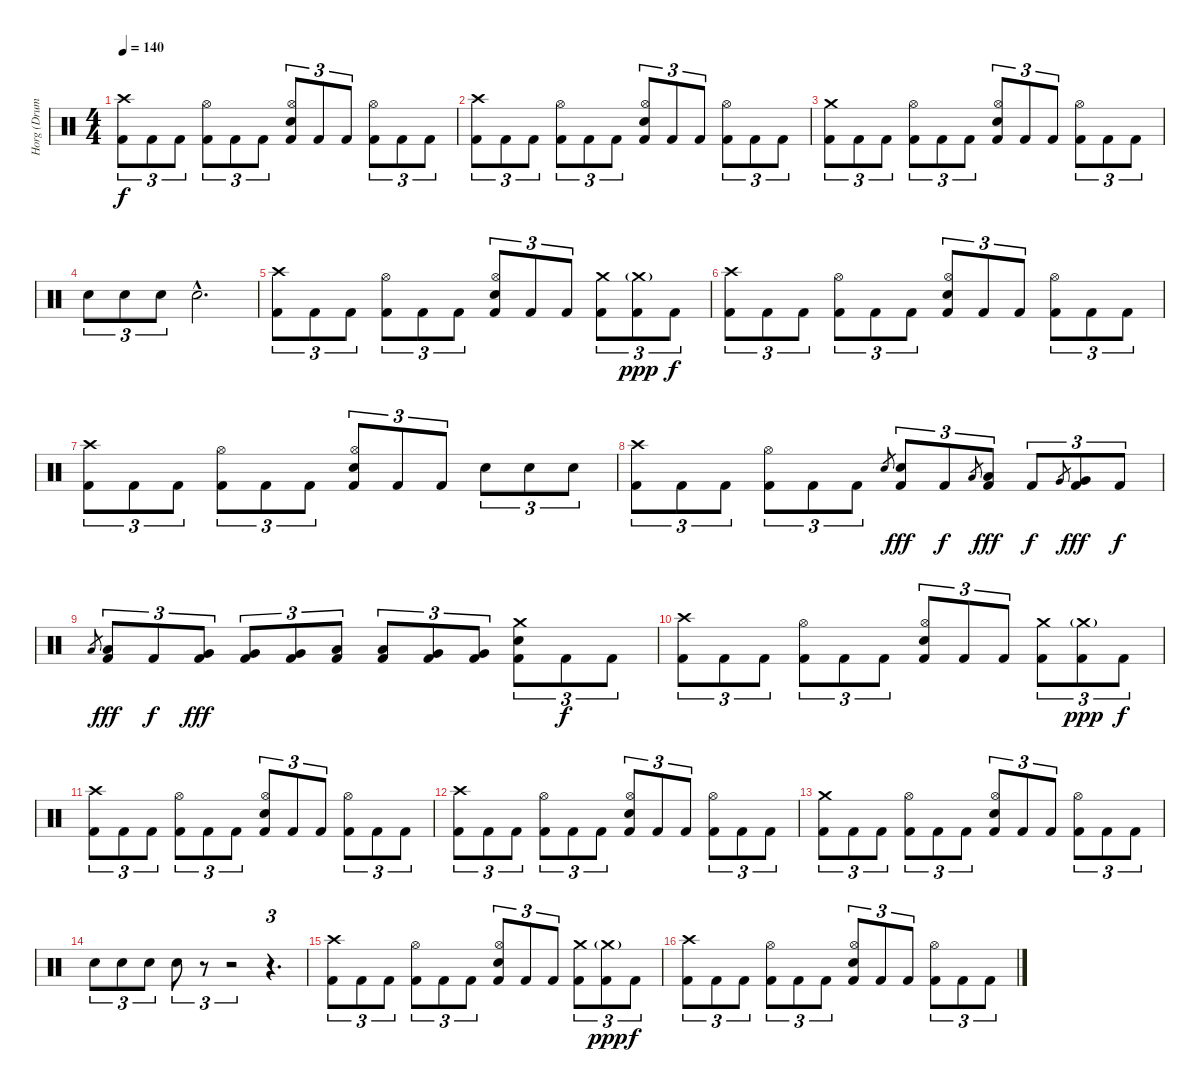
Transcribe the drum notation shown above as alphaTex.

\track ("Horg (Drums)" "Horg (Drum") {instrument percussion}
\staff {score}
\articulation defaults
\ts (4 4)
\tempo 140
\clef neutral
\ks c
("Crash high (hit)" "Kick (hit) 2").8{tu (3 2) dy f} "Kick (hit) 2".8{tu (3 2)} "Kick (hit) 2".8{tu (3 2)} ("Hi-Hat (open)" "Kick (hit) 2").8{tu (3 2)} "Kick (hit) 2".8{tu (3 2)} "Kick (hit) 2".8{tu (3 2)} ("Hi-Hat (open)" "Electric Snare (hit)" "Kick (hit) 2").8{tu (3 2)} "Kick (hit) 2".8{tu (3 2)} "Kick (hit) 2".8{tu (3 2)} ("Hi-Hat (open)" "Kick (hit) 2").8{tu (3 2)} "Kick (hit) 2".8{tu (3 2)} "Kick (hit) 2".8{tu (3 2)} |
("Crash high (hit)" "Kick (hit) 2").8{tu (3 2)} "Kick (hit) 2".8{tu (3 2)} "Kick (hit) 2".8{tu (3 2)} ("Hi-Hat (open)" "Kick (hit) 2").8{tu (3 2)} "Kick (hit) 2".8{tu (3 2)} "Kick (hit) 2".8{tu (3 2)} ("Hi-Hat (open)" "Electric Snare (hit)" "Kick (hit) 2").8{tu (3 2)} "Kick (hit) 2".8{tu (3 2)} "Kick (hit) 2".8{tu (3 2)} ("Hi-Hat (open)" "Kick (hit) 2").8{tu (3 2)} "Kick (hit) 2".8{tu (3 2)} "Kick (hit) 2".8{tu (3 2)} |
("Crash medium (hit)" "Kick (hit) 2").8{tu (3 2)} "Kick (hit) 2".8{tu (3 2)} "Kick (hit) 2".8{tu (3 2)} ("Hi-Hat (open)" "Kick (hit) 2").8{tu (3 2)} "Kick (hit) 2".8{tu (3 2)} "Kick (hit) 2".8{tu (3 2)} ("Hi-Hat (open)" "Electric Snare (hit)" "Kick (hit) 2").8{tu (3 2)} "Kick (hit) 2".8{tu (3 2)} "Kick (hit) 2".8{tu (3 2)} ("Hi-Hat (open)" "Kick (hit) 2").8{tu (3 2)} "Kick (hit) 2".8{tu (3 2)} "Kick (hit) 2".8{tu (3 2)} |
"Electric Snare (hit)".8{tu (3 2)} "Electric Snare (hit)".8{tu (3 2)} "Electric Snare (hit)".8{tu (3 2)} "Electric Snare (hit)"{hac}.2{d} |
("Crash high (hit)" "Kick (hit) 2").8{tu (3 2)} "Kick (hit) 2".8{tu (3 2)} "Kick (hit) 2".8{tu (3 2)} ("Hi-Hat (open)" "Kick (hit) 2").8{tu (3 2)} "Kick (hit) 2".8{tu (3 2)} "Kick (hit) 2".8{tu (3 2)} ("Hi-Hat (open)" "Electric Snare (hit)" "Kick (hit) 2").8{tu (3 2)} "Kick (hit) 2".8{tu (3 2)} "Kick (hit) 2".8{tu (3 2)} ("Crash medium (hit)" "Kick (hit) 2").8{tu (3 2)} ("Crash medium (hit)"{g} "Kick (hit) 2").8{tu (3 2) dy ppp} "Kick (hit) 2".8{tu (3 2) dy f} |
("Crash high (hit)" "Kick (hit) 2").8{tu (3 2)} "Kick (hit) 2".8{tu (3 2)} "Kick (hit) 2".8{tu (3 2)} ("Hi-Hat (open)" "Kick (hit) 2").8{tu (3 2)} "Kick (hit) 2".8{tu (3 2)} "Kick (hit) 2".8{tu (3 2)} ("Hi-Hat (open)" "Electric Snare (hit)" "Kick (hit) 2").8{tu (3 2)} "Kick (hit) 2".8{tu (3 2)} "Kick (hit) 2".8{tu (3 2)} ("Hi-Hat (open)" "Kick (hit) 2").8{tu (3 2)} "Kick (hit) 2".8{tu (3 2)} "Kick (hit) 2".8{tu (3 2)} |
("Crash high (hit)" "Kick (hit) 2").8{tu (3 2)} "Kick (hit) 2".8{tu (3 2)} "Kick (hit) 2".8{tu (3 2)} ("Hi-Hat (open)" "Kick (hit) 2").8{tu (3 2)} "Kick (hit) 2".8{tu (3 2)} "Kick (hit) 2".8{tu (3 2)} ("Hi-Hat (open)" "Electric Snare (hit)" "Kick (hit) 2").8{tu (3 2)} "Kick (hit) 2".8{tu (3 2)} "Kick (hit) 2".8{tu (3 2)} "Electric Snare (hit)".8{tu (3 2)} "Electric Snare (hit)".8{tu (3 2)} "Electric Snare (hit)".8{tu (3 2)} |
("Crash high (hit)" "Kick (hit) 2").8{tu (3 2)} "Kick (hit) 2".8{tu (3 2)} "Kick (hit) 2".8{tu (3 2)} ("Hi-Hat (open)" "Kick (hit) 2").8{tu (3 2)} "Kick (hit) 2".8{tu (3 2)} "Kick (hit) 2".8{tu (3 2)} "Electric Snare (hit)".8{gr} ("Electric Snare (hit)" "Kick (hit) 2").8{tu (3 2) dy fff} "Kick (hit) 2".8{tu (3 2) dy f} "Low Tom (hit)".8{gr} ("Low Tom (hit)" "Kick (hit) 2").8{tu (3 2) dy fff} "Kick (hit) 2".8{tu (3 2) dy f} "Very Low Tom (hit)".8{gr} ("Very Low Tom (hit)" "Kick (hit) 2").8{tu (3 2) dy fff} "Kick (hit) 2".8{tu (3 2) dy f} |
"Low Floor Tom (hit)".8{gr} ("Low Floor Tom (hit)" "Kick (hit) 2").8{tu (3 2) dy fff} "Kick (hit) 2".8{tu (3 2) dy f} ("Very Low Tom (hit)" "Kick (hit) 2").8{tu (3 2) dy fff} ("Very Low Tom (hit)" "Kick (hit) 2").8{tu (3 2)} ("Very Low Tom (hit)" "Kick (hit) 2").8{tu (3 2)} ("Low Floor Tom (hit)" "Kick (hit) 2").8{tu (3 2)} ("Low Floor Tom (hit)" "Kick (hit) 2").8{tu (3 2)} ("Very Low Tom (hit)" "Kick (hit) 2").8{tu (3 2)} ("Very Low Tom (hit)" "Kick (hit) 2").8{tu (3 2)} ("Crash medium (hit)" "Electric Snare (hit)" "Kick (hit) 2").8{tu (3 2)} "Kick (hit) 2".8{tu (3 2) dy f} "Kick (hit) 2".8{tu (3 2)} |
("Crash high (hit)" "Kick (hit) 2").8{tu (3 2)} "Kick (hit) 2".8{tu (3 2)} "Kick (hit) 2".8{tu (3 2)} ("Hi-Hat (open)" "Kick (hit) 2").8{tu (3 2)} "Kick (hit) 2".8{tu (3 2)} "Kick (hit) 2".8{tu (3 2)} ("Hi-Hat (open)" "Electric Snare (hit)" "Kick (hit) 2").8{tu (3 2)} "Kick (hit) 2".8{tu (3 2)} "Kick (hit) 2".8{tu (3 2)} ("Crash medium (hit)" "Kick (hit) 2").8{tu (3 2)} ("Crash medium (hit)"{g} "Kick (hit) 2").8{tu (3 2) dy ppp} "Kick (hit) 2".8{tu (3 2) dy f} |
("Crash high (hit)" "Kick (hit) 2").8{tu (3 2)} "Kick (hit) 2".8{tu (3 2)} "Kick (hit) 2".8{tu (3 2)} ("Hi-Hat (open)" "Kick (hit) 2").8{tu (3 2)} "Kick (hit) 2".8{tu (3 2)} "Kick (hit) 2".8{tu (3 2)} ("Hi-Hat (open)" "Electric Snare (hit)" "Kick (hit) 2").8{tu (3 2)} "Kick (hit) 2".8{tu (3 2)} "Kick (hit) 2".8{tu (3 2)} ("Hi-Hat (open)" "Kick (hit) 2").8{tu (3 2)} "Kick (hit) 2".8{tu (3 2)} "Kick (hit) 2".8{tu (3 2)} |
("Crash high (hit)" "Kick (hit) 2").8{tu (3 2)} "Kick (hit) 2".8{tu (3 2)} "Kick (hit) 2".8{tu (3 2)} ("Hi-Hat (open)" "Kick (hit) 2").8{tu (3 2)} "Kick (hit) 2".8{tu (3 2)} "Kick (hit) 2".8{tu (3 2)} ("Hi-Hat (open)" "Electric Snare (hit)" "Kick (hit) 2").8{tu (3 2)} "Kick (hit) 2".8{tu (3 2)} "Kick (hit) 2".8{tu (3 2)} ("Hi-Hat (open)" "Kick (hit) 2").8{tu (3 2)} "Kick (hit) 2".8{tu (3 2)} "Kick (hit) 2".8{tu (3 2)} |
("Crash medium (hit)" "Kick (hit) 2").8{tu (3 2)} "Kick (hit) 2".8{tu (3 2)} "Kick (hit) 2".8{tu (3 2)} ("Hi-Hat (open)" "Kick (hit) 2").8{tu (3 2)} "Kick (hit) 2".8{tu (3 2)} "Kick (hit) 2".8{tu (3 2)} ("Hi-Hat (open)" "Electric Snare (hit)" "Kick (hit) 2").8{tu (3 2)} "Kick (hit) 2".8{tu (3 2)} "Kick (hit) 2".8{tu (3 2)} ("Hi-Hat (open)" "Kick (hit) 2").8{tu (3 2)} "Kick (hit) 2".8{tu (3 2)} "Kick (hit) 2".8{tu (3 2)} |
"Electric Snare (hit)".8{tu (3 2)} "Electric Snare (hit)".8{tu (3 2)} "Electric Snare (hit)".8{tu (3 2)} "Electric Snare (hit)".8{tu (3 2)} r.8{tu (3 2)} r.2{tu (3 2)} r.4{d tu (3 2)} |
("Crash high (hit)" "Kick (hit) 2").8{tu (3 2)} "Kick (hit) 2".8{tu (3 2)} "Kick (hit) 2".8{tu (3 2)} ("Hi-Hat (open)" "Kick (hit) 2").8{tu (3 2)} "Kick (hit) 2".8{tu (3 2)} "Kick (hit) 2".8{tu (3 2)} ("Hi-Hat (open)" "Electric Snare (hit)" "Kick (hit) 2").8{tu (3 2)} "Kick (hit) 2".8{tu (3 2)} "Kick (hit) 2".8{tu (3 2)} ("Crash medium (hit)" "Kick (hit) 2").8{tu (3 2)} ("Crash medium (hit)"{g} "Kick (hit) 2").8{tu (3 2) dy ppp} "Kick (hit) 2".8{tu (3 2) dy f} |
("Crash high (hit)" "Kick (hit) 2").8{tu (3 2)} "Kick (hit) 2".8{tu (3 2)} "Kick (hit) 2".8{tu (3 2)} ("Hi-Hat (open)" "Kick (hit) 2").8{tu (3 2)} "Kick (hit) 2".8{tu (3 2)} "Kick (hit) 2".8{tu (3 2)} ("Hi-Hat (open)" "Electric Snare (hit)" "Kick (hit) 2").8{tu (3 2)} "Kick (hit) 2".8{tu (3 2)} "Kick (hit) 2".8{tu (3 2)} ("Hi-Hat (open)" "Kick (hit) 2").8{tu (3 2)} "Kick (hit) 2".8{tu (3 2)} "Kick (hit) 2".8{tu (3 2)}
